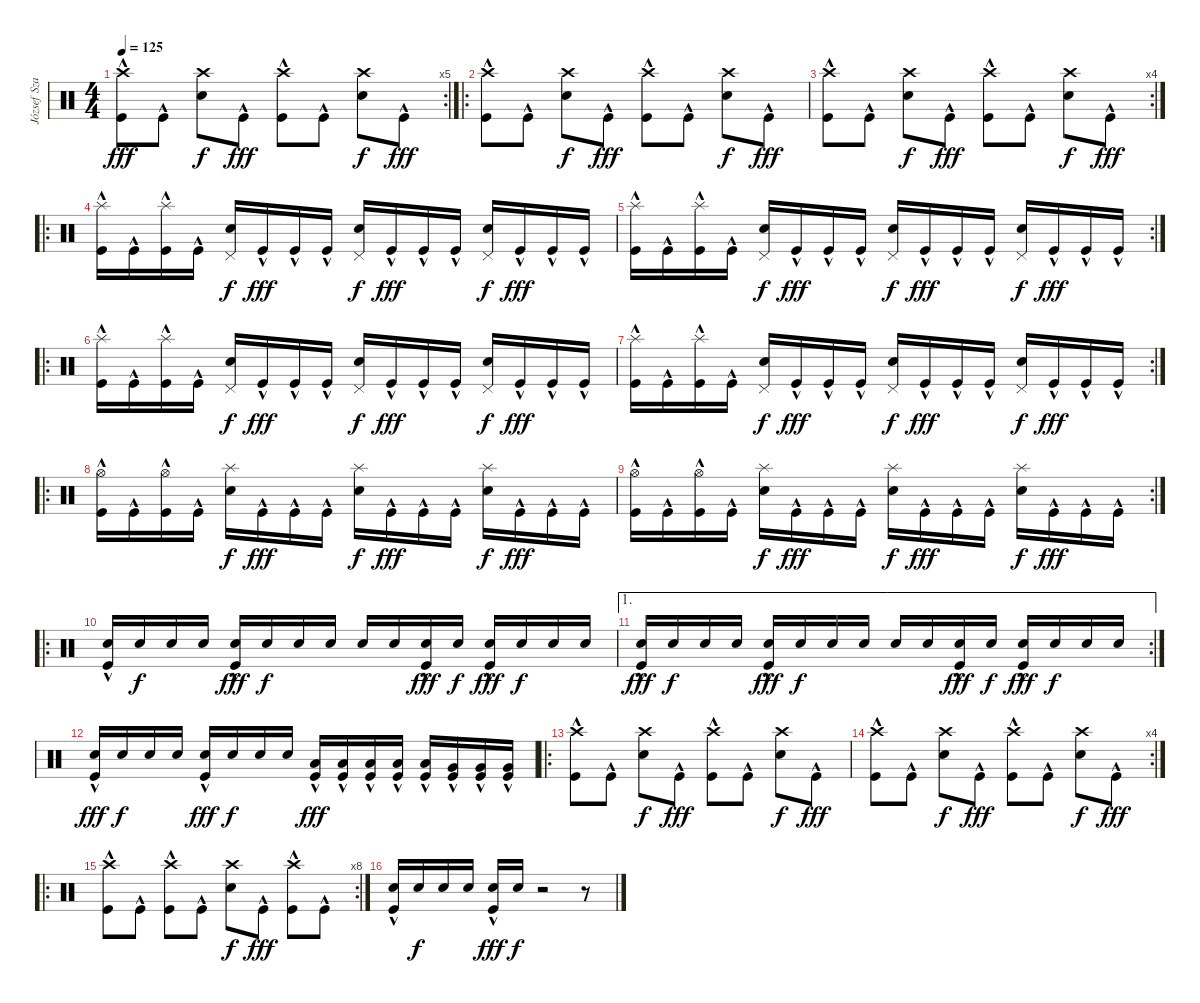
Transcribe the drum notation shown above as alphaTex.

\track ("József Szakács" "József Sza") {instrument percussion bank 127}
\staff {score}
\articulation defaults
\rc 5
\ts (4 4)
\tempo 125
\clef neutral
\ks c
("Crash high (hit)" "Kick (hit)"{hac}).8{dy fff} "Kick (hit)"{hac}.8 ("Crash high (hit)" "Electric Snare (hit)").8{dy f} "Kick (hit)"{hac}.8{dy fff} ("Crash high (hit)" "Kick (hit)"{hac}).8 "Kick (hit)"{hac}.8 ("Crash high (hit)" "Electric Snare (hit)").8{dy f} "Kick (hit)"{hac}.8{dy fff} |
\ro
("Crash high (hit)" "Kick (hit)"{hac}).8 "Kick (hit)"{hac}.8 ("Crash high (hit)" "Electric Snare (hit)").8{dy f} "Kick (hit)"{hac}.8{dy fff} ("Crash high (hit)" "Kick (hit)"{hac}).8 "Kick (hit)"{hac}.8 ("Crash high (hit)" "Electric Snare (hit)").8{dy f} "Kick (hit)"{hac}.8{dy fff} |
\rc 4
("Crash high (hit)" "Kick (hit)"{hac}).8 "Kick (hit)"{hac}.8 ("Crash high (hit)" "Electric Snare (hit)").8{dy f} "Kick (hit)"{hac}.8{dy fff} ("Crash high (hit)" "Kick (hit)"{hac}).8 "Kick (hit)"{hac}.8 ("Crash high (hit)" "Electric Snare (hit)").8{dy f} "Kick (hit)"{hac}.8{dy fff} |
\ro
("Splash (hit)" "Kick (hit)"{hac}).16 "Kick (hit)"{hac}.16 ("Splash (hit)" "Kick (hit)"{hac}).16 "Kick (hit)"{hac}.16 ("Pedal Hi-Hat (hit)" "Electric Snare (hit)").16{dy f} "Kick (hit)"{hac}.16{dy fff} "Kick (hit)"{hac}.16 "Kick (hit)"{hac}.16 ("Pedal Hi-Hat (hit)" "Electric Snare (hit)").16{dy f} "Kick (hit)"{hac}.16{dy fff} "Kick (hit)"{hac}.16 "Kick (hit)"{hac}.16 ("Pedal Hi-Hat (hit)" "Electric Snare (hit)").16{dy f} "Kick (hit)"{hac}.16{dy fff} "Kick (hit)"{hac}.16 "Kick (hit)"{hac}.16 |
\rc 2
("Splash (hit)" "Kick (hit)"{hac}).16 "Kick (hit)"{hac}.16 ("Splash (hit)" "Kick (hit)"{hac}).16 "Kick (hit)"{hac}.16 ("Pedal Hi-Hat (hit)" "Electric Snare (hit)").16{dy f} "Kick (hit)"{hac}.16{dy fff} "Kick (hit)"{hac}.16 "Kick (hit)"{hac}.16 ("Pedal Hi-Hat (hit)" "Electric Snare (hit)").16{dy f} "Kick (hit)"{hac}.16{dy fff} "Kick (hit)"{hac}.16 "Kick (hit)"{hac}.16 ("Pedal Hi-Hat (hit)" "Electric Snare (hit)").16{dy f} "Kick (hit)"{hac}.16{dy fff} "Kick (hit)"{hac}.16 "Kick (hit)"{hac}.16 |
\ro
("Splash (hit)" "Kick (hit)"{hac}).16 "Kick (hit)"{hac}.16 ("Splash (hit)" "Kick (hit)"{hac}).16 "Kick (hit)"{hac}.16 ("Pedal Hi-Hat (hit)" "Electric Snare (hit)").16{dy f} "Kick (hit)"{hac}.16{dy fff} "Kick (hit)"{hac}.16 "Kick (hit)"{hac}.16 ("Pedal Hi-Hat (hit)" "Electric Snare (hit)").16{dy f} "Kick (hit)"{hac}.16{dy fff} "Kick (hit)"{hac}.16 "Kick (hit)"{hac}.16 ("Pedal Hi-Hat (hit)" "Electric Snare (hit)").16{dy f} "Kick (hit)"{hac}.16{dy fff} "Kick (hit)"{hac}.16 "Kick (hit)"{hac}.16 |
\rc 2
("Splash (hit)" "Kick (hit)"{hac}).16 "Kick (hit)"{hac}.16 ("Splash (hit)" "Kick (hit)"{hac}).16 "Kick (hit)"{hac}.16 ("Pedal Hi-Hat (hit)" "Electric Snare (hit)").16{dy f} "Kick (hit)"{hac}.16{dy fff} "Kick (hit)"{hac}.16 "Kick (hit)"{hac}.16 ("Pedal Hi-Hat (hit)" "Electric Snare (hit)").16{dy f} "Kick (hit)"{hac}.16{dy fff} "Kick (hit)"{hac}.16 "Kick (hit)"{hac}.16 ("Pedal Hi-Hat (hit)" "Electric Snare (hit)").16{dy f} "Kick (hit)"{hac}.16{dy fff} "Kick (hit)"{hac}.16 "Kick (hit)"{hac}.16 |
\ro
("Hi-Hat (open)" "Kick (hit)"{hac}).16 "Kick (hit)"{hac}.16 ("Hi-Hat (open)" "Kick (hit)"{hac}).16 "Kick (hit)"{hac}.16 ("Splash (hit)" "Electric Snare (hit)").16{dy f} "Kick (hit)"{hac}.16{dy fff} "Kick (hit)"{hac}.16 "Kick (hit)"{hac}.16 ("Splash (hit)" "Electric Snare (hit)").16{dy f} "Kick (hit)"{hac}.16{dy fff} "Kick (hit)"{hac}.16 "Kick (hit)"{hac}.16 ("Splash (hit)" "Electric Snare (hit)").16{dy f} "Kick (hit)"{hac}.16{dy fff} "Kick (hit)"{hac}.16 "Kick (hit)"{hac}.16 |
\rc 2
("Hi-Hat (open)" "Kick (hit)"{hac}).16 "Kick (hit)"{hac}.16 ("Hi-Hat (open)" "Kick (hit)"{hac}).16 "Kick (hit)"{hac}.16 ("Splash (hit)" "Electric Snare (hit)").16{dy f} "Kick (hit)"{hac}.16{dy fff} "Kick (hit)"{hac}.16 "Kick (hit)"{hac}.16 ("Splash (hit)" "Electric Snare (hit)").16{dy f} "Kick (hit)"{hac}.16{dy fff} "Kick (hit)"{hac}.16 "Kick (hit)"{hac}.16 ("Splash (hit)" "Electric Snare (hit)").16{dy f} "Kick (hit)"{hac}.16{dy fff} "Kick (hit)"{hac}.16 "Kick (hit)"{hac}.16 |
\ro
("Electric Snare (hit)" "Kick (hit)"{hac}).16 "Electric Snare (hit)".16{dy f} "Electric Snare (hit)".16 "Electric Snare (hit)".16 ("Electric Snare (hit)" "Kick (hit)"{hac}).16{dy fff} "Electric Snare (hit)".16{dy f} "Electric Snare (hit)".16 "Electric Snare (hit)".16 "Electric Snare (hit)".16 "Electric Snare (hit)".16 ("Electric Snare (hit)" "Kick (hit)"{hac}).16{dy fff} "Electric Snare (hit)".16{dy f} ("Electric Snare (hit)" "Kick (hit)"{hac}).16{dy fff} "Electric Snare (hit)".16{dy f} "Electric Snare (hit)".16 "Electric Snare (hit)".16 |
\ae 1
\rc 2
("Electric Snare (hit)" "Kick (hit)"{hac}).16{dy fff} "Electric Snare (hit)".16{dy f} "Electric Snare (hit)".16 "Electric Snare (hit)".16 ("Electric Snare (hit)" "Kick (hit)"{hac}).16{dy fff} "Electric Snare (hit)".16{dy f} "Electric Snare (hit)".16 "Electric Snare (hit)".16 "Electric Snare (hit)".16 "Electric Snare (hit)".16 ("Electric Snare (hit)" "Kick (hit)"{hac}).16{dy fff} "Electric Snare (hit)".16{dy f} ("Electric Snare (hit)" "Kick (hit)"{hac}).16{dy fff} "Electric Snare (hit)".16{dy f} "Electric Snare (hit)".16 "Electric Snare (hit)".16 |
("Electric Snare (hit)" "Kick (hit)"{hac}).16{dy fff} "Electric Snare (hit)".16{dy f} "Electric Snare (hit)".16 "Electric Snare (hit)".16 ("Electric Snare (hit)" "Kick (hit)"{hac}).16{dy fff} "Electric Snare (hit)".16{dy f} "Electric Snare (hit)".16 "Electric Snare (hit)".16 ("Low Tom (hit)" "Kick (hit)"{hac}).16{dy fff} ("Low Tom (hit)" "Kick (hit)"{hac}).16 ("Low Tom (hit)" "Kick (hit)"{hac}).16 ("Low Tom (hit)" "Kick (hit)"{hac}).16 ("Low Tom (hit)" "Kick (hit)"{hac}).16 ("Very Low Tom (hit)" "Kick (hit)"{hac}).16 ("Very Low Tom (hit)" "Kick (hit)"{hac}).16 ("Very Low Tom (hit)" "Kick (hit)"{hac}).16 |
\ro
("Crash high (hit)" "Kick (hit)"{hac}).8 "Kick (hit)"{hac}.8 ("Crash high (hit)" "Electric Snare (hit)").8{dy f} "Kick (hit)"{hac}.8{dy fff} ("Crash high (hit)" "Kick (hit)"{hac}).8 "Kick (hit)"{hac}.8 ("Crash high (hit)" "Electric Snare (hit)").8{dy f} "Kick (hit)"{hac}.8{dy fff} |
\rc 4
("Crash high (hit)" "Kick (hit)"{hac}).8 "Kick (hit)"{hac}.8 ("Crash high (hit)" "Electric Snare (hit)").8{dy f} "Kick (hit)"{hac}.8{dy fff} ("Crash high (hit)" "Kick (hit)"{hac}).8 "Kick (hit)"{hac}.8 ("Crash high (hit)" "Electric Snare (hit)").8{dy f} "Kick (hit)"{hac}.8{dy fff} |
\ro
\rc 8
("Crash high (hit)" "Kick (hit)"{hac}).8 "Kick (hit)"{hac}.8 ("Crash high (hit)" "Kick (hit)"{hac}).8 "Kick (hit)"{hac}.8 ("Crash high (hit)" "Electric Snare (hit)").8{dy f} "Kick (hit)"{hac}.8{dy fff} ("Crash high (hit)" "Kick (hit)"{hac}).8 "Kick (hit)"{hac}.8 |
("Electric Snare (hit)" "Kick (hit)"{hac}).16 "Electric Snare (hit)".16{dy f} "Electric Snare (hit)".16 "Electric Snare (hit)".16 ("Electric Snare (hit)" "Kick (hit)"{hac}).16{dy fff} "Electric Snare (hit)".16{dy f} r.2 r.8
